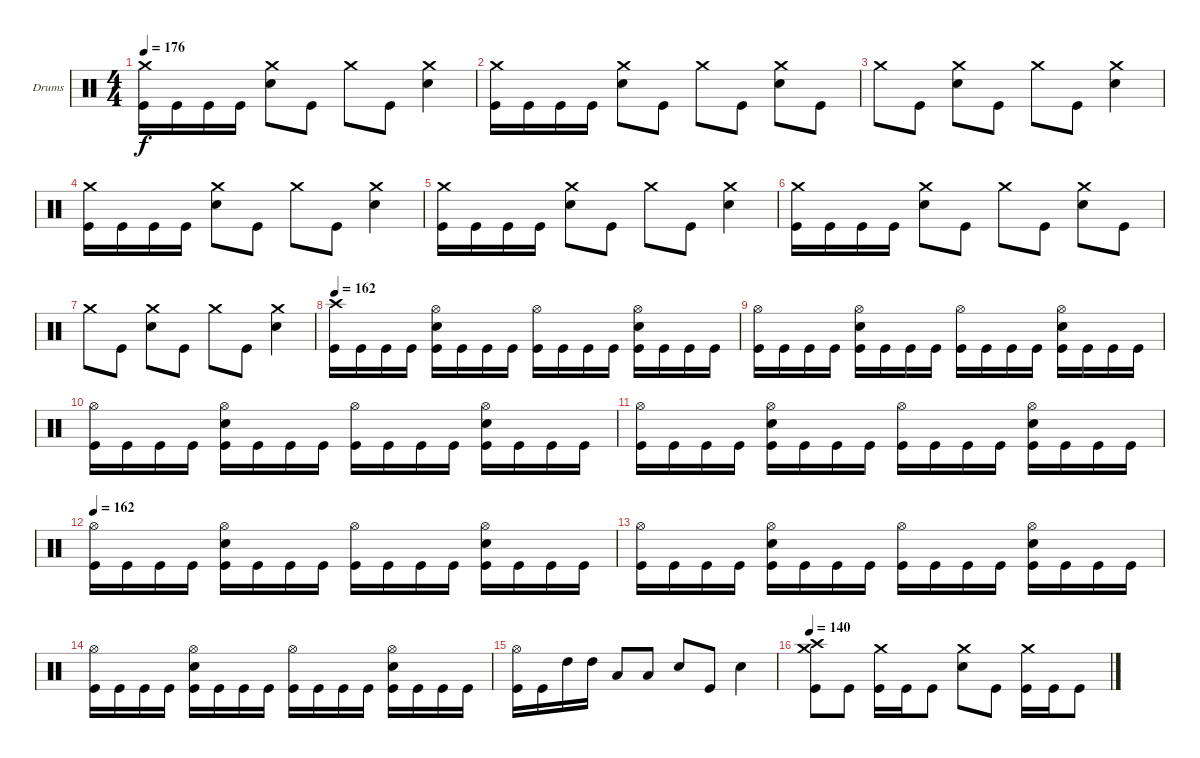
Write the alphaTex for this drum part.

\bracketExtendMode groupsimilarinstruments
\firstSystemTrackNameOrientation horizontal
\otherSystemsTrackNameOrientation horizontal
\track ("Drumkit" "Drums") {instrument percussion}
\staff {score}
\articulation defaults
\ts (4 4)
\tempo 176
\clef neutral
\ks c
("Crash medium (hit)" "Kick (hit)").16{dy f} "Kick (hit)".16 "Kick (hit)".16 "Kick (hit)".16 ("Crash medium (hit)" "Snare (hit) 2").8 "Kick (hit)".8 "Crash medium (hit)".8 "Kick (hit)".8 ("Crash medium (hit)" "Snare (hit) 2").4 |
("Crash medium (hit)" "Kick (hit)").16 "Kick (hit)".16 "Kick (hit)".16 "Kick (hit)".16 ("Crash medium (hit)" "Snare (hit) 2").8 "Kick (hit)".8 "Crash medium (hit)".8 "Kick (hit)".8 ("Crash medium (hit)" "Snare (hit) 2").8 "Kick (hit)".8 |
"Crash medium (hit)".8 "Kick (hit)".8 ("Crash medium (hit)" "Snare (hit) 2").8 "Kick (hit)".8 "Crash medium (hit)".8 "Kick (hit)".8 ("Crash medium (hit)" "Snare (hit) 2").4 |
("Crash medium (hit)" "Kick (hit)").16 "Kick (hit)".16 "Kick (hit)".16 "Kick (hit)".16 ("Crash medium (hit)" "Snare (hit) 2").8 "Kick (hit)".8 "Crash medium (hit)".8 "Kick (hit)".8 ("Crash medium (hit)" "Snare (hit) 2").4 |
("Crash medium (hit)" "Kick (hit)").16 "Kick (hit)".16 "Kick (hit)".16 "Kick (hit)".16 ("Crash medium (hit)" "Snare (hit) 2").8 "Kick (hit)".8 "Crash medium (hit)".8 "Kick (hit)".8 ("Crash medium (hit)" "Snare (hit) 2").4 |
("Crash medium (hit)" "Kick (hit)").16 "Kick (hit)".16 "Kick (hit)".16 "Kick (hit)".16 ("Crash medium (hit)" "Snare (hit) 2").8 "Kick (hit)".8 "Crash medium (hit)".8 "Kick (hit)".8 ("Crash medium (hit)" "Snare (hit) 2").8 "Kick (hit)".8 |
"Crash medium (hit)".8 "Kick (hit)".8 ("Crash medium (hit)" "Snare (hit) 2").8 "Kick (hit)".8 "Crash medium (hit)".8 "Kick (hit)".8 ("Crash medium (hit)" "Snare (hit) 2").4 |
\tempo 162
("Crash high (hit)" "Kick (hit)").16 "Kick (hit)".16 "Kick (hit)".16 "Kick (hit)".16 ("Hi-Hat (open)" "Snare (hit) 2" "Kick (hit)").16 "Kick (hit)".16 "Kick (hit)".16 "Kick (hit)".16 ("Hi-Hat (open)" "Kick (hit)").16 "Kick (hit)".16 "Kick (hit)".16 "Kick (hit)".16 ("Hi-Hat (open)" "Snare (hit) 2" "Kick (hit)").16 "Kick (hit)".16 "Kick (hit)".16 "Kick (hit)".16 |
("Hi-Hat (open)" "Kick (hit)").16 "Kick (hit)".16 "Kick (hit)".16 "Kick (hit)".16 ("Hi-Hat (open)" "Snare (hit) 2" "Kick (hit)").16 "Kick (hit)".16 "Kick (hit)".16 "Kick (hit)".16 ("Hi-Hat (open)" "Kick (hit)").16 "Kick (hit)".16 "Kick (hit)".16 "Kick (hit)".16 ("Hi-Hat (open)" "Snare (hit) 2" "Kick (hit)").16 "Kick (hit)".16 "Kick (hit)".16 "Kick (hit)".16 |
("Hi-Hat (open)" "Kick (hit)").16 "Kick (hit)".16 "Kick (hit)".16 "Kick (hit)".16 ("Hi-Hat (open)" "Snare (hit) 2" "Kick (hit)").16 "Kick (hit)".16 "Kick (hit)".16 "Kick (hit)".16 ("Hi-Hat (open)" "Kick (hit)").16 "Kick (hit)".16 "Kick (hit)".16 "Kick (hit)".16 ("Hi-Hat (open)" "Snare (hit) 2" "Kick (hit)").16 "Kick (hit)".16 "Kick (hit)".16 "Kick (hit)".16 |
("Hi-Hat (open)" "Kick (hit)").16 "Kick (hit)".16 "Kick (hit)".16 "Kick (hit)".16 ("Hi-Hat (open)" "Snare (hit) 2" "Kick (hit)").16 "Kick (hit)".16 "Kick (hit)".16 "Kick (hit)".16 ("Hi-Hat (open)" "Kick (hit)").16 "Kick (hit)".16 "Kick (hit)".16 "Kick (hit)".16 ("Hi-Hat (open)" "Snare (hit) 2" "Kick (hit)").16 "Kick (hit)".16 "Kick (hit)".16 "Kick (hit)".16 |
\tempo 162
("Hi-Hat (open)" "Kick (hit)").16 "Kick (hit)".16 "Kick (hit)".16 "Kick (hit)".16 ("Hi-Hat (open)" "Snare (hit) 2" "Kick (hit)").16 "Kick (hit)".16 "Kick (hit)".16 "Kick (hit)".16 ("Hi-Hat (open)" "Kick (hit)").16 "Kick (hit)".16 "Kick (hit)".16 "Kick (hit)".16 ("Hi-Hat (open)" "Snare (hit) 2" "Kick (hit)").16 "Kick (hit)".16 "Kick (hit)".16 "Kick (hit)".16 |
("Hi-Hat (open)" "Kick (hit)").16 "Kick (hit)".16 "Kick (hit)".16 "Kick (hit)".16 ("Hi-Hat (open)" "Snare (hit) 2" "Kick (hit)").16 "Kick (hit)".16 "Kick (hit)".16 "Kick (hit)".16 ("Hi-Hat (open)" "Kick (hit)").16 "Kick (hit)".16 "Kick (hit)".16 "Kick (hit)".16 ("Hi-Hat (open)" "Snare (hit) 2" "Kick (hit)").16 "Kick (hit)".16 "Kick (hit)".16 "Kick (hit)".16 |
("Hi-Hat (open)" "Kick (hit)").16 "Kick (hit)".16 "Kick (hit)".16 "Kick (hit)".16 ("Hi-Hat (open)" "Snare (hit) 2" "Kick (hit)").16 "Kick (hit)".16 "Kick (hit)".16 "Kick (hit)".16 ("Hi-Hat (open)" "Kick (hit)").16 "Kick (hit)".16 "Kick (hit)".16 "Kick (hit)".16 ("Hi-Hat (open)" "Snare (hit) 2" "Kick (hit)").16 "Kick (hit)".16 "Kick (hit)".16 "Kick (hit)".16 |
("Hi-Hat (open)" "Kick (hit)").16 "Kick (hit)".16 "High Tom (hit)".16 "High Tom (hit)".16 "Low Tom (hit)".8 "Low Tom (hit)".8 "Snare (hit) 2".8 "Kick (hit)".8 "Snare (hit) 2".4 |
\tempo 140
("Crash medium (hit)" "Crash high (hit)" "Kick (hit)").8 "Kick (hit)".8 ("Crash medium (hit)" "Kick (hit)").16 "Kick (hit)".16 "Kick (hit)".8 ("Crash medium (hit)" "Snare (hit) 2").8 "Kick (hit)".8 ("Crash medium (hit)" "Kick (hit)").16 "Kick (hit)".16 "Kick (hit)".8
